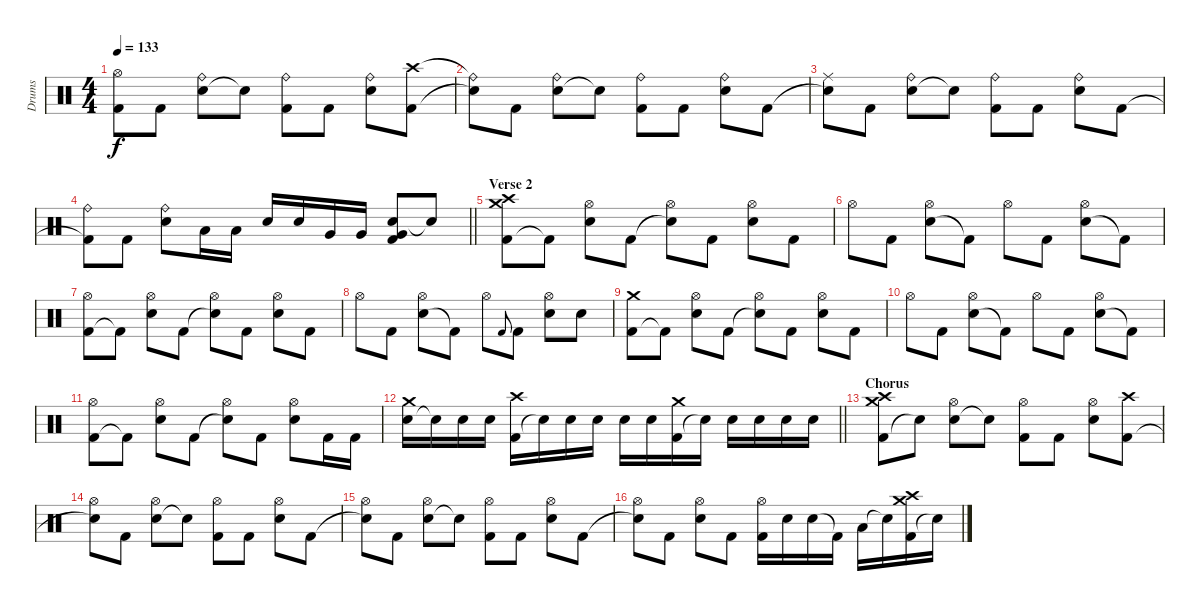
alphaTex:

\track ("Drums" "Drums") {instrument percussion}
\staff {score}
\articulation defaults
\ts (4 4)
\tempo 133
\clef neutral
\ks c
("Kick (hit) 2"{t} "Hi-Hat (open)"{t}).8{dy f} "Kick (hit) 2".8 ("Electric Snare (hit)" "Ride (bell)").8 "Snare (hit)"{t}.8 ("Kick (hit) 2" "Ride (bell)").8 "Kick (hit) 2".8 ("Electric Snare (hit)" "Ride (bell)").8 ("Kick (hit) 2" "Crash high (hit)").8 |
("Snare (hit)"{t} "Ride (bell)"{t}).8 "Kick (hit) 2".8 ("Electric Snare (hit)" "Ride (bell)").8 "Snare (hit)"{t}.8 ("Kick (hit) 2" "Ride (bell)").8 "Kick (hit) 2".8 ("Electric Snare (hit)" "Ride (bell)").8 "Kick (hit) 2".8 |
("Snare (hit)"{t} "Ride (middle)").8 "Kick (hit) 2".8 ("Electric Snare (hit)" "Ride (bell)").8 "Snare (hit)"{t}.8 ("Kick (hit) 2" "Ride (bell)").8 "Kick (hit) 2".8 ("Electric Snare (hit)" "Ride (bell)").8 "Kick (hit) 2".8 |
\barLineRight lightlight
("Kick (hit) 2"{t} "Ride (bell)").8 "Kick (hit) 2".8 ("Electric Snare (hit)" "Ride (bell)").8 "Low Tom (hit)".16 "Low Tom (hit)".16 "Electric Snare (hit)".16 "Electric Snare (hit)".16 "Very Low Tom (hit)".16 "Very Low Tom (hit)".16 ("Electric Snare (hit)" "Very Low Tom (hit)" "Kick (hit) 2").8 "Snare (hit)"{t}.8 |
\section ("" "Verse 2")
("Kick (hit) 2" "Crash medium (hit)" "Crash high (hit)").8 "Kick (hit) 2"{t}.8 ("Electric Snare (hit)" "Hi-Hat (open)").8 "Kick (hit) 2".8 ("Electric Snare (hit)"{t} "Hi-Hat (open)").8 "Kick (hit) 2".8 ("Electric Snare (hit)" "Hi-Hat (open)").8 "Kick (hit) 2".8 |
"Hi-Hat (open)".8 "Kick (hit) 2".8 ("Electric Snare (hit)" "Hi-Hat (open)").8 "Kick (hit) 2"{t}.8 "Hi-Hat (open)".8 "Kick (hit) 2".8 ("Electric Snare (hit)" "Hi-Hat (open)").8 "Kick (hit) 2"{t}.8 |
("Kick (hit) 2" "Hi-Hat (open)").8 "Kick (hit) 2"{t}.8 ("Electric Snare (hit)" "Hi-Hat (open)").8 "Kick (hit) 2".8 ("Electric Snare (hit)"{t} "Hi-Hat (open)").8 "Kick (hit) 2".8 ("Electric Snare (hit)" "Hi-Hat (open)").8 "Kick (hit) 2".8 |
"Hi-Hat (open)".8 "Kick (hit) 2".8 ("Electric Snare (hit)" "Hi-Hat (open)").8 "Kick (hit) 2"{t}.8 "Hi-Hat (open)".8 "Kick (hit) 2".8{gr onbeat} "Kick (hit) 2".8 ("Electric Snare (hit)" "Hi-Hat (open)").8 "Electric Snare (hit)".8 |
("Kick (hit) 2" "Crash medium (hit)").8 "Kick (hit) 2"{t}.8 ("Electric Snare (hit)" "Hi-Hat (open)").8 "Kick (hit) 2".8 ("Electric Snare (hit)"{t} "Hi-Hat (open)").8 "Kick (hit) 2".8 ("Electric Snare (hit)" "Hi-Hat (open)").8 "Kick (hit) 2".8 |
"Hi-Hat (open)".8 "Kick (hit) 2".8 ("Electric Snare (hit)" "Hi-Hat (open)").8 "Kick (hit) 2"{t}.8 "Hi-Hat (open)".8 "Kick (hit) 2".8 ("Electric Snare (hit)" "Hi-Hat (open)").8 "Kick (hit) 2"{t}.8 |
("Kick (hit) 2" "Hi-Hat (open)").8 "Kick (hit) 2"{t}.8 ("Electric Snare (hit)" "Hi-Hat (open)").8 "Kick (hit) 2".8 ("Electric Snare (hit)"{t} "Hi-Hat (open)").8 "Kick (hit) 2".8 ("Electric Snare (hit)" "Hi-Hat (open)").8 "Kick (hit) 2".16 "Kick (hit) 2".16 |
\barLineRight lightlight
("Electric Snare (hit)" "Crash medium (hit)").16 "Snare (hit)"{t}.16 "Electric Snare (hit)".16 "Electric Snare (hit)".16 ("Kick (hit) 2" "Crash high (hit)").16 "Snare (hit)"{t}.16 "Electric Snare (hit)".16 "Electric Snare (hit)".16 "Electric Snare (hit)".16 "Electric Snare (hit)".16 ("Kick (hit) 2" "Crash medium (hit)").16 "Electric Snare (hit)"{t}.16 "Electric Snare (hit)".16 "Electric Snare (hit)".16 "Electric Snare (hit)".16 "Electric Snare (hit)".16 |
\section ("" "Chorus")
("Kick (hit) 2" "Crash medium (hit)" "Crash high (hit)").8 "Snare (hit)"{t}.8 ("Electric Snare (hit)" "Hi-Hat (open)").8 "Snare (hit)"{t}.8 ("Kick (hit) 2" "Hi-Hat (open)").8 "Kick (hit) 2".8 ("Electric Snare (hit)" "Hi-Hat (open)").8 ("Kick (hit) 2" "Crash high (hit)").8 |
("Snare (hit)"{t} "Hi-Hat (open)").8 "Kick (hit) 2".8 ("Electric Snare (hit)" "Hi-Hat (open)").8 "Snare (hit)"{t}.8 ("Kick (hit) 2" "Hi-Hat (open)").8 "Kick (hit) 2".8 ("Electric Snare (hit)" "Hi-Hat (open)").8 "Kick (hit) 2".8 |
("Snare (hit)"{t} "Hi-Hat (open)").8 "Kick (hit) 2".8 ("Electric Snare (hit)" "Hi-Hat (open)").8 "Snare (hit)"{t}.8 ("Kick (hit) 2" "Hi-Hat (open)").8 "Kick (hit) 2".8 ("Electric Snare (hit)" "Hi-Hat (open)").8 "Kick (hit) 2".8 |
("Snare (hit)"{t} "Hi-Hat (open)").8 "Kick (hit) 2".8 ("Electric Snare (hit)" "Hi-Hat (open)").8 "Kick (hit) 2".8 ("Kick (hit) 2" "Hi-Hat (open)").16 "Electric Snare (hit)".16 "Electric Snare (hit)".16 "Kick (hit) 2"{t}.16 "Low Tom (hit)".16 "Snare (hit)"{t}.16 ("Kick (hit) 2" "Crash medium (hit)" "Crash high (hit)").16 "Snare (hit)"{t}.16
